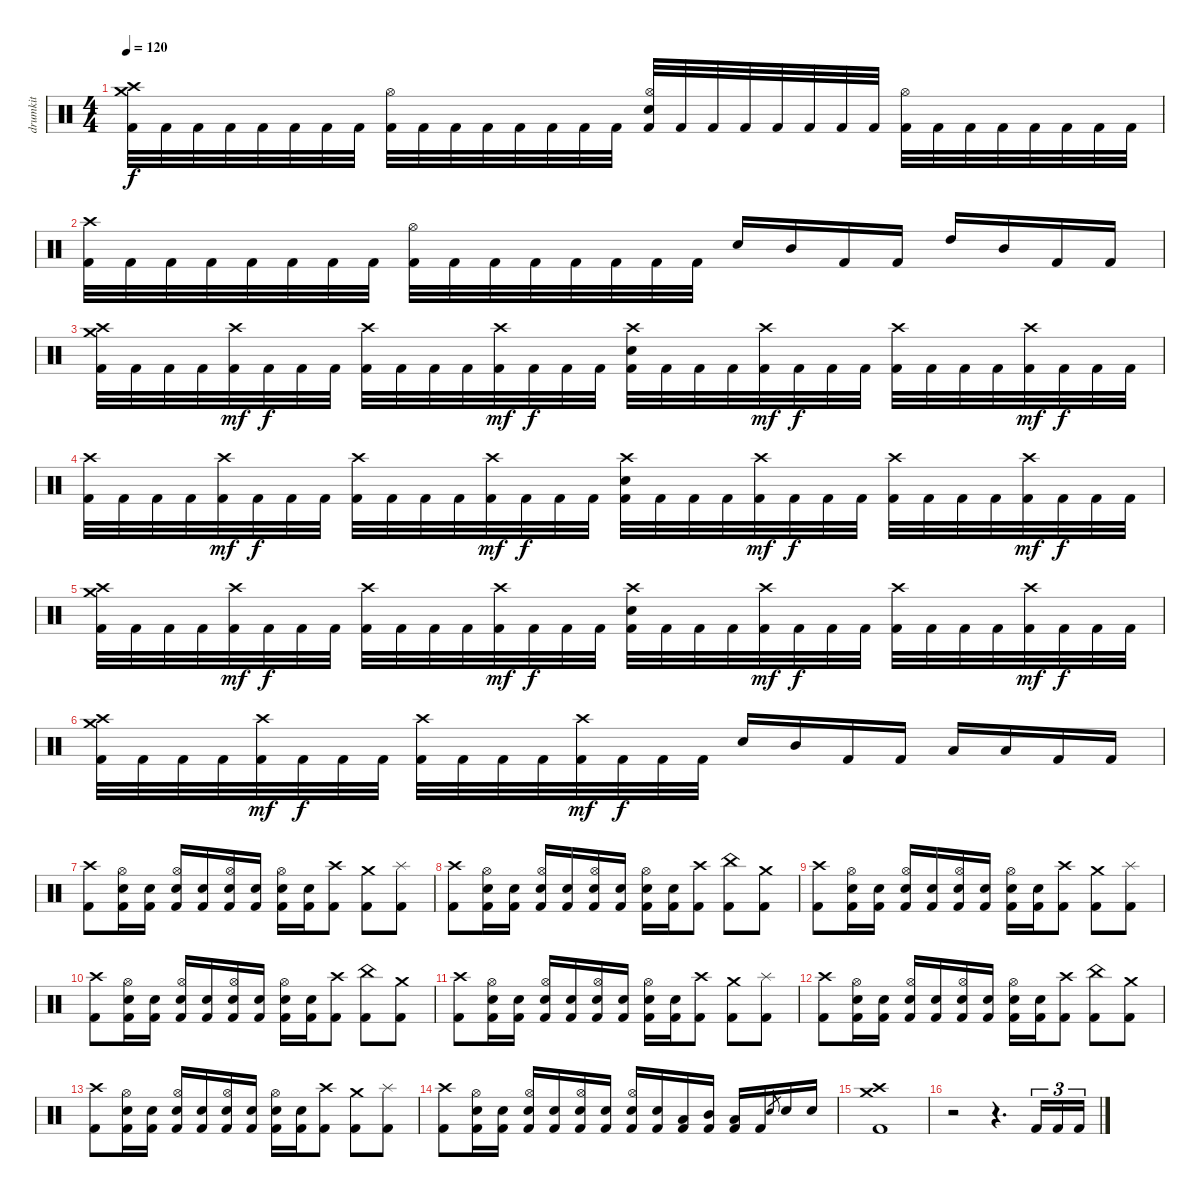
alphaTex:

\track ("drumkit" "drumkit") {instrument percussion}
\staff {score}
\articulation defaults
\ts (4 4)
\tempo 120
\clef neutral
\ks c
("Crash high (hit)" "Crash medium (hit)" "Kick (hit) 2").32{dy f} "Kick (hit) 2".32 "Kick (hit) 2".32 "Kick (hit) 2".32 "Kick (hit) 2".32 "Kick (hit) 2".32 "Kick (hit) 2".32 "Kick (hit) 2".32 ("Hi-Hat (open)" "Kick (hit) 2").32 "Kick (hit) 2".32 "Kick (hit) 2".32 "Kick (hit) 2".32 "Kick (hit) 2".32 "Kick (hit) 2".32 "Kick (hit) 2".32 "Kick (hit) 2".32 ("Hi-Hat (open)" "Electric Snare (hit)" "Kick (hit) 2").32 "Kick (hit) 2".32 "Kick (hit) 2".32 "Kick (hit) 2".32 "Kick (hit) 2".32 "Kick (hit) 2".32 "Kick (hit) 2".32 "Kick (hit) 2".32 ("Hi-Hat (open)" "Kick (hit) 2").32 "Kick (hit) 2".32 "Kick (hit) 2".32 "Kick (hit) 2".32 "Kick (hit) 2".32 "Kick (hit) 2".32 "Kick (hit) 2".32 "Kick (hit) 2".32 |
("Crash high (hit)" "Kick (hit) 2").32 "Kick (hit) 2".32 "Kick (hit) 2".32 "Kick (hit) 2".32 "Kick (hit) 2".32 "Kick (hit) 2".32 "Kick (hit) 2".32 "Kick (hit) 2".32 ("Hi-Hat (open)" "Kick (hit) 2").32 "Kick (hit) 2".32 "Kick (hit) 2".32 "Kick (hit) 2".32 "Kick (hit) 2".32 "Kick (hit) 2".32 "Kick (hit) 2".32 "Kick (hit) 2".32 "Electric Snare (hit)".16 "Mid Tom (hit)".16 "Kick (hit) 2".16 "Kick (hit) 2".16 "High Tom (hit)".16 "Mid Tom (hit)".16 "Kick (hit) 2".16 "Kick (hit) 2".16 |
("Crash high (hit)" "Crash medium (hit)" "Kick (hit) 2").32 "Kick (hit) 2".32 "Kick (hit) 2".32 "Kick (hit) 2".32 ("Crash high (hit)" "Kick (hit) 2").32{dy mf} "Kick (hit) 2".32{dy f} "Kick (hit) 2".32 "Kick (hit) 2".32 ("Crash high (hit)" "Kick (hit) 2").32 "Kick (hit) 2".32 "Kick (hit) 2".32 "Kick (hit) 2".32 ("Crash high (hit)" "Kick (hit) 2").32{dy mf} "Kick (hit) 2".32{dy f} "Kick (hit) 2".32 "Kick (hit) 2".32 ("Crash high (hit)" "Electric Snare (hit)" "Kick (hit) 2").32 "Kick (hit) 2".32 "Kick (hit) 2".32 "Kick (hit) 2".32 ("Crash high (hit)" "Kick (hit) 2").32{dy mf} "Kick (hit) 2".32{dy f} "Kick (hit) 2".32 "Kick (hit) 2".32 ("Crash high (hit)" "Kick (hit) 2").32 "Kick (hit) 2".32 "Kick (hit) 2".32 "Kick (hit) 2".32 ("Crash high (hit)" "Kick (hit) 2").32{dy mf} "Kick (hit) 2".32{dy f} "Kick (hit) 2".32 "Kick (hit) 2".32 |
("Crash high (hit)" "Kick (hit) 2").32 "Kick (hit) 2".32 "Kick (hit) 2".32 "Kick (hit) 2".32 ("Crash high (hit)" "Kick (hit) 2").32{dy mf} "Kick (hit) 2".32{dy f} "Kick (hit) 2".32 "Kick (hit) 2".32 ("Crash high (hit)" "Kick (hit) 2").32 "Kick (hit) 2".32 "Kick (hit) 2".32 "Kick (hit) 2".32 ("Crash high (hit)" "Kick (hit) 2").32{dy mf} "Kick (hit) 2".32{dy f} "Kick (hit) 2".32 "Kick (hit) 2".32 ("Crash high (hit)" "Electric Snare (hit)" "Kick (hit) 2").32 "Kick (hit) 2".32 "Kick (hit) 2".32 "Kick (hit) 2".32 ("Crash high (hit)" "Kick (hit) 2").32{dy mf} "Kick (hit) 2".32{dy f} "Kick (hit) 2".32 "Kick (hit) 2".32 ("Crash high (hit)" "Kick (hit) 2").32 "Kick (hit) 2".32 "Kick (hit) 2".32 "Kick (hit) 2".32 ("Crash high (hit)" "Kick (hit) 2").32{dy mf} "Kick (hit) 2".32{dy f} "Kick (hit) 2".32 "Kick (hit) 2".32 |
("Crash high (hit)" "Crash medium (hit)" "Kick (hit) 2").32 "Kick (hit) 2".32 "Kick (hit) 2".32 "Kick (hit) 2".32 ("Crash high (hit)" "Kick (hit) 2").32{dy mf} "Kick (hit) 2".32{dy f} "Kick (hit) 2".32 "Kick (hit) 2".32 ("Crash high (hit)" "Kick (hit) 2").32 "Kick (hit) 2".32 "Kick (hit) 2".32 "Kick (hit) 2".32 ("Crash high (hit)" "Kick (hit) 2").32{dy mf} "Kick (hit) 2".32{dy f} "Kick (hit) 2".32 "Kick (hit) 2".32 ("Crash high (hit)" "Electric Snare (hit)" "Kick (hit) 2").32 "Kick (hit) 2".32 "Kick (hit) 2".32 "Kick (hit) 2".32 ("Crash high (hit)" "Kick (hit) 2").32{dy mf} "Kick (hit) 2".32{dy f} "Kick (hit) 2".32 "Kick (hit) 2".32 ("Crash high (hit)" "Kick (hit) 2").32 "Kick (hit) 2".32 "Kick (hit) 2".32 "Kick (hit) 2".32 ("Crash high (hit)" "Kick (hit) 2").32{dy mf} "Kick (hit) 2".32{dy f} "Kick (hit) 2".32 "Kick (hit) 2".32 |
("Crash high (hit)" "Crash medium (hit)" "Kick (hit) 2").32 "Kick (hit) 2".32 "Kick (hit) 2".32 "Kick (hit) 2".32 ("Crash high (hit)" "Kick (hit) 2").32{dy mf} "Kick (hit) 2".32{dy f} "Kick (hit) 2".32 "Kick (hit) 2".32 ("Crash high (hit)" "Kick (hit) 2").32 "Kick (hit) 2".32 "Kick (hit) 2".32 "Kick (hit) 2".32 ("Crash high (hit)" "Kick (hit) 2").32{dy mf} "Kick (hit) 2".32{dy f} "Kick (hit) 2".32 "Kick (hit) 2".32 "Electric Snare (hit)".16 "Mid Tom (hit)".16 "Kick (hit) 2".16 "Kick (hit) 2".16 "Low Tom (hit)".16 "Low Tom (hit)".16 "Kick (hit) 2".16 "Kick (hit) 2".16 |
("Crash high (hit)" "Kick (hit) 2").8 ("Hi-Hat (open)" "Electric Snare (hit)" "Kick (hit) 2").16 ("Electric Snare (hit)" "Kick (hit) 2").16 ("Hi-Hat (open)" "Electric Snare (hit)" "Kick (hit) 2").16 ("Electric Snare (hit)" "Kick (hit) 2").16 ("Hi-Hat (open)" "Electric Snare (hit)" "Kick (hit) 2").16 ("Electric Snare (hit)" "Kick (hit) 2").16 ("Hi-Hat (open)" "Electric Snare (hit)" "Kick (hit) 2").16 ("Electric Snare (hit)" "Kick (hit) 2").16 ("Crash high (hit)" "Kick (hit) 2").8 ("Crash medium (hit)" "Kick (hit) 2").8 ("Splash (hit)" "Kick (hit) 2").8 |
("Crash high (hit)" "Kick (hit) 2").8 ("Hi-Hat (open)" "Electric Snare (hit)" "Kick (hit) 2").16 ("Electric Snare (hit)" "Kick (hit) 2").16 ("Hi-Hat (open)" "Electric Snare (hit)" "Kick (hit) 2").16 ("Electric Snare (hit)" "Kick (hit) 2").16 ("Hi-Hat (open)" "Electric Snare (hit)" "Kick (hit) 2").16 ("Electric Snare (hit)" "Kick (hit) 2").16 ("Hi-Hat (open)" "Electric Snare (hit)" "Kick (hit) 2").16 ("Electric Snare (hit)" "Kick (hit) 2").16 ("Crash high (hit)" "Kick (hit) 2").8 ("China (hit)" "Kick (hit) 2").8 ("Crash medium (hit)" "Kick (hit) 2").8 |
("Crash high (hit)" "Kick (hit) 2").8 ("Hi-Hat (open)" "Electric Snare (hit)" "Kick (hit) 2").16 ("Electric Snare (hit)" "Kick (hit) 2").16 ("Hi-Hat (open)" "Electric Snare (hit)" "Kick (hit) 2").16 ("Electric Snare (hit)" "Kick (hit) 2").16 ("Hi-Hat (open)" "Electric Snare (hit)" "Kick (hit) 2").16 ("Electric Snare (hit)" "Kick (hit) 2").16 ("Hi-Hat (open)" "Electric Snare (hit)" "Kick (hit) 2").16 ("Electric Snare (hit)" "Kick (hit) 2").16 ("Crash high (hit)" "Kick (hit) 2").8 ("Crash medium (hit)" "Kick (hit) 2").8 ("Splash (hit)" "Kick (hit) 2").8 |
("Crash high (hit)" "Kick (hit) 2").8 ("Hi-Hat (open)" "Electric Snare (hit)" "Kick (hit) 2").16 ("Electric Snare (hit)" "Kick (hit) 2").16 ("Hi-Hat (open)" "Electric Snare (hit)" "Kick (hit) 2").16 ("Electric Snare (hit)" "Kick (hit) 2").16 ("Hi-Hat (open)" "Electric Snare (hit)" "Kick (hit) 2").16 ("Electric Snare (hit)" "Kick (hit) 2").16 ("Hi-Hat (open)" "Electric Snare (hit)" "Kick (hit) 2").16 ("Electric Snare (hit)" "Kick (hit) 2").16 ("Crash high (hit)" "Kick (hit) 2").8 ("China (hit)" "Kick (hit) 2").8 ("Crash medium (hit)" "Kick (hit) 2").8 |
("Crash high (hit)" "Kick (hit) 2").8 ("Hi-Hat (open)" "Electric Snare (hit)" "Kick (hit) 2").16 ("Electric Snare (hit)" "Kick (hit) 2").16 ("Hi-Hat (open)" "Electric Snare (hit)" "Kick (hit) 2").16 ("Electric Snare (hit)" "Kick (hit) 2").16 ("Hi-Hat (open)" "Electric Snare (hit)" "Kick (hit) 2").16 ("Electric Snare (hit)" "Kick (hit) 2").16 ("Hi-Hat (open)" "Electric Snare (hit)" "Kick (hit) 2").16 ("Electric Snare (hit)" "Kick (hit) 2").16 ("Crash high (hit)" "Kick (hit) 2").8 ("Crash medium (hit)" "Kick (hit) 2").8 ("Splash (hit)" "Kick (hit) 2").8 |
("Crash high (hit)" "Kick (hit) 2").8 ("Hi-Hat (open)" "Electric Snare (hit)" "Kick (hit) 2").16 ("Electric Snare (hit)" "Kick (hit) 2").16 ("Hi-Hat (open)" "Electric Snare (hit)" "Kick (hit) 2").16 ("Electric Snare (hit)" "Kick (hit) 2").16 ("Hi-Hat (open)" "Electric Snare (hit)" "Kick (hit) 2").16 ("Electric Snare (hit)" "Kick (hit) 2").16 ("Hi-Hat (open)" "Electric Snare (hit)" "Kick (hit) 2").16 ("Electric Snare (hit)" "Kick (hit) 2").16 ("Crash high (hit)" "Kick (hit) 2").8 ("China (hit)" "Kick (hit) 2").8 ("Crash medium (hit)" "Kick (hit) 2").8 |
("Crash high (hit)" "Kick (hit) 2").8 ("Hi-Hat (open)" "Electric Snare (hit)" "Kick (hit) 2").16 ("Electric Snare (hit)" "Kick (hit) 2").16 ("Hi-Hat (open)" "Electric Snare (hit)" "Kick (hit) 2").16 ("Electric Snare (hit)" "Kick (hit) 2").16 ("Hi-Hat (open)" "Electric Snare (hit)" "Kick (hit) 2").16 ("Electric Snare (hit)" "Kick (hit) 2").16 ("Hi-Hat (open)" "Electric Snare (hit)" "Kick (hit) 2").16 ("Electric Snare (hit)" "Kick (hit) 2").16 ("Crash high (hit)" "Kick (hit) 2").8 ("Crash medium (hit)" "Kick (hit) 2").8 ("Splash (hit)" "Kick (hit) 2").8 |
("Crash high (hit)" "Kick (hit) 2").8 ("Hi-Hat (open)" "Electric Snare (hit)" "Kick (hit) 2").16 ("Electric Snare (hit)" "Kick (hit) 2").16 ("Hi-Hat (open)" "Electric Snare (hit)" "Kick (hit) 2").16 ("Electric Snare (hit)" "Kick (hit) 2").16 ("Hi-Hat (open)" "Electric Snare (hit)" "Kick (hit) 2").16 ("Electric Snare (hit)" "Kick (hit) 2").16 ("Hi-Hat (open)" "Electric Snare (hit)" "Kick (hit) 2").16 ("Electric Snare (hit)" "Kick (hit) 2").16 ("Low Floor Tom (hit)" "Kick (hit) 2").16 ("Mid Tom (hit)" "Kick (hit) 2").16 ("Low Floor Tom (hit)" "Kick (hit) 2").16 "Kick (hit) 2".16 "Electric Snare (hit)".8{gr} "Electric Snare (hit)".16 "Electric Snare (hit)".16 |
("Crash high (hit)" "Crash medium (hit)" "Kick (hit) 2").1 |
r.2 r.4{d} "Kick (hit) 2".16{tu (3 2)} "Kick (hit) 2".16{tu (3 2)} "Kick (hit) 2".16{tu (3 2)}
